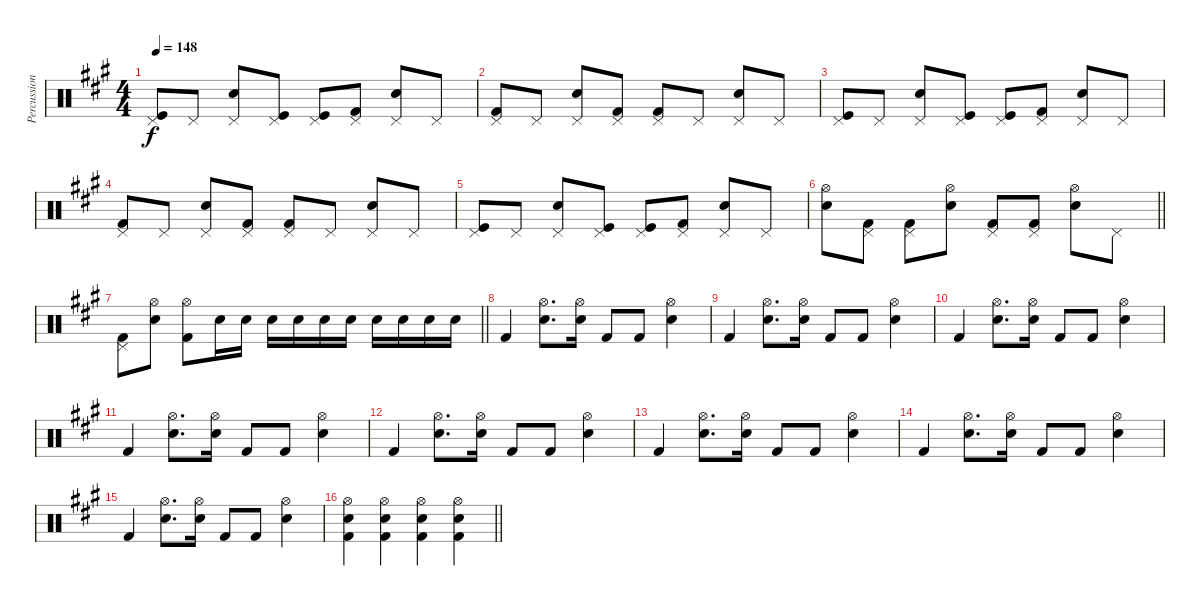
\track ("Percussion" "Percussion") {instrument percussion}
\staff {score}
\articulation defaults
\ts (4 4)
\tempo 148
\clef neutral
\ks a
("Pedal Hi-Hat (hit)" "Kick (hit)").8{dy f} "Pedal Hi-Hat (hit)".8 ("Pedal Hi-Hat (hit)" "Electric Snare (hit)").8 ("Pedal Hi-Hat (hit)" "Kick (hit)").8 ("Pedal Hi-Hat (hit)" "Kick (hit)").8 ("Pedal Hi-Hat (hit)" "Kick (hit) 2").8 ("Pedal Hi-Hat (hit)" "Electric Snare (hit)").8 "Pedal Hi-Hat (hit)".8 |
("Pedal Hi-Hat (hit)" "Kick (hit) 2").8 "Pedal Hi-Hat (hit)".8 ("Pedal Hi-Hat (hit)" "Electric Snare (hit)").8 ("Pedal Hi-Hat (hit)" "Kick (hit) 2").8 ("Pedal Hi-Hat (hit)" "Kick (hit) 2").8 "Pedal Hi-Hat (hit)".8 ("Pedal Hi-Hat (hit)" "Electric Snare (hit)").8 "Pedal Hi-Hat (hit)".8 |
("Pedal Hi-Hat (hit)" "Kick (hit)").8 "Pedal Hi-Hat (hit)".8 ("Pedal Hi-Hat (hit)" "Electric Snare (hit)").8 ("Pedal Hi-Hat (hit)" "Kick (hit)").8 ("Pedal Hi-Hat (hit)" "Kick (hit)").8 ("Pedal Hi-Hat (hit)" "Kick (hit) 2").8 ("Pedal Hi-Hat (hit)" "Electric Snare (hit)").8 "Pedal Hi-Hat (hit)".8 |
("Pedal Hi-Hat (hit)" "Kick (hit) 2").8 "Pedal Hi-Hat (hit)".8 ("Pedal Hi-Hat (hit)" "Electric Snare (hit)").8 ("Pedal Hi-Hat (hit)" "Kick (hit) 2").8 ("Pedal Hi-Hat (hit)" "Kick (hit) 2").8 "Pedal Hi-Hat (hit)".8 ("Pedal Hi-Hat (hit)" "Electric Snare (hit)").8 "Pedal Hi-Hat (hit)".8 |
("Pedal Hi-Hat (hit)" "Kick (hit)").8 "Pedal Hi-Hat (hit)".8 ("Pedal Hi-Hat (hit)" "Electric Snare (hit)").8 ("Pedal Hi-Hat (hit)" "Kick (hit)").8 ("Pedal Hi-Hat (hit)" "Kick (hit)").8 ("Pedal Hi-Hat (hit)" "Kick (hit) 2").8 ("Pedal Hi-Hat (hit)" "Electric Snare (hit)").8 "Pedal Hi-Hat (hit)".8 |
\barLineRight lightlight
("Hi-Hat (open)" "Electric Snare (hit)").8 ("Pedal Hi-Hat (hit)" "Kick (hit) 2").8 ("Pedal Hi-Hat (hit)" "Kick (hit) 2").8 ("Hi-Hat (open)" "Electric Snare (hit)").8 ("Pedal Hi-Hat (hit)" "Kick (hit) 2").8 ("Pedal Hi-Hat (hit)" "Kick (hit) 2").8 ("Hi-Hat (open)" "Electric Snare (hit)").8 "Pedal Hi-Hat (hit)".8 |
\barLineRight lightlight
("Pedal Hi-Hat (hit)" "Kick (hit) 2").8 ("Hi-Hat (open)" "Electric Snare (hit)").8 ("Hi-Hat (open)" "Kick (hit) 2").8 "Electric Snare (hit)".16 "Electric Snare (hit)".16 "Electric Snare (hit)".16 "Electric Snare (hit)".16 "Electric Snare (hit)".16 "Electric Snare (hit)".16 "Electric Snare (hit)".16 "Electric Snare (hit)".16 "Electric Snare (hit)".16 "Electric Snare (hit)".16 |
"Kick (hit) 2".4 ("Hi-Hat (open)" "Electric Snare (hit)").8{d} ("Hi-Hat (open)" "Electric Snare (hit)").16 "Kick (hit) 2".8 "Kick (hit) 2".8 ("Hi-Hat (open)" "Electric Snare (hit)").4 |
"Kick (hit) 2".4 ("Hi-Hat (open)" "Electric Snare (hit)").8{d} ("Hi-Hat (open)" "Electric Snare (hit)").16 "Kick (hit) 2".8 "Kick (hit) 2".8 ("Hi-Hat (open)" "Electric Snare (hit)").4 |
"Kick (hit) 2".4 ("Hi-Hat (open)" "Electric Snare (hit)").8{d} ("Hi-Hat (open)" "Electric Snare (hit)").16 "Kick (hit) 2".8 "Kick (hit) 2".8 ("Hi-Hat (open)" "Electric Snare (hit)").4 |
"Kick (hit) 2".4 ("Hi-Hat (open)" "Electric Snare (hit)").8{d} ("Hi-Hat (open)" "Electric Snare (hit)").16 "Kick (hit) 2".8 "Kick (hit) 2".8 ("Hi-Hat (open)" "Electric Snare (hit)").4 |
"Kick (hit) 2".4 ("Hi-Hat (open)" "Electric Snare (hit)").8{d} ("Hi-Hat (open)" "Electric Snare (hit)").16 "Kick (hit) 2".8 "Kick (hit) 2".8 ("Hi-Hat (open)" "Electric Snare (hit)").4 |
"Kick (hit) 2".4 ("Hi-Hat (open)" "Electric Snare (hit)").8{d} ("Hi-Hat (open)" "Electric Snare (hit)").16 "Kick (hit) 2".8 "Kick (hit) 2".8 ("Hi-Hat (open)" "Electric Snare (hit)").4 |
"Kick (hit) 2".4 ("Hi-Hat (open)" "Electric Snare (hit)").8{d} ("Hi-Hat (open)" "Electric Snare (hit)").16 "Kick (hit) 2".8 "Kick (hit) 2".8 ("Hi-Hat (open)" "Electric Snare (hit)").4 |
"Kick (hit) 2".4 ("Hi-Hat (open)" "Electric Snare (hit)").8{d} ("Hi-Hat (open)" "Electric Snare (hit)").16 "Kick (hit) 2".8 "Kick (hit) 2".8 ("Hi-Hat (open)" "Electric Snare (hit)").4 |
\barLineRight lightlight
("Hi-Hat (open)" "Electric Snare (hit)" "Kick (hit) 2").4 ("Hi-Hat (open)" "Electric Snare (hit)" "Kick (hit) 2").4 ("Hi-Hat (open)" "Electric Snare (hit)" "Kick (hit) 2").4 ("Hi-Hat (open)" "Electric Snare (hit)" "Kick (hit) 2").4
